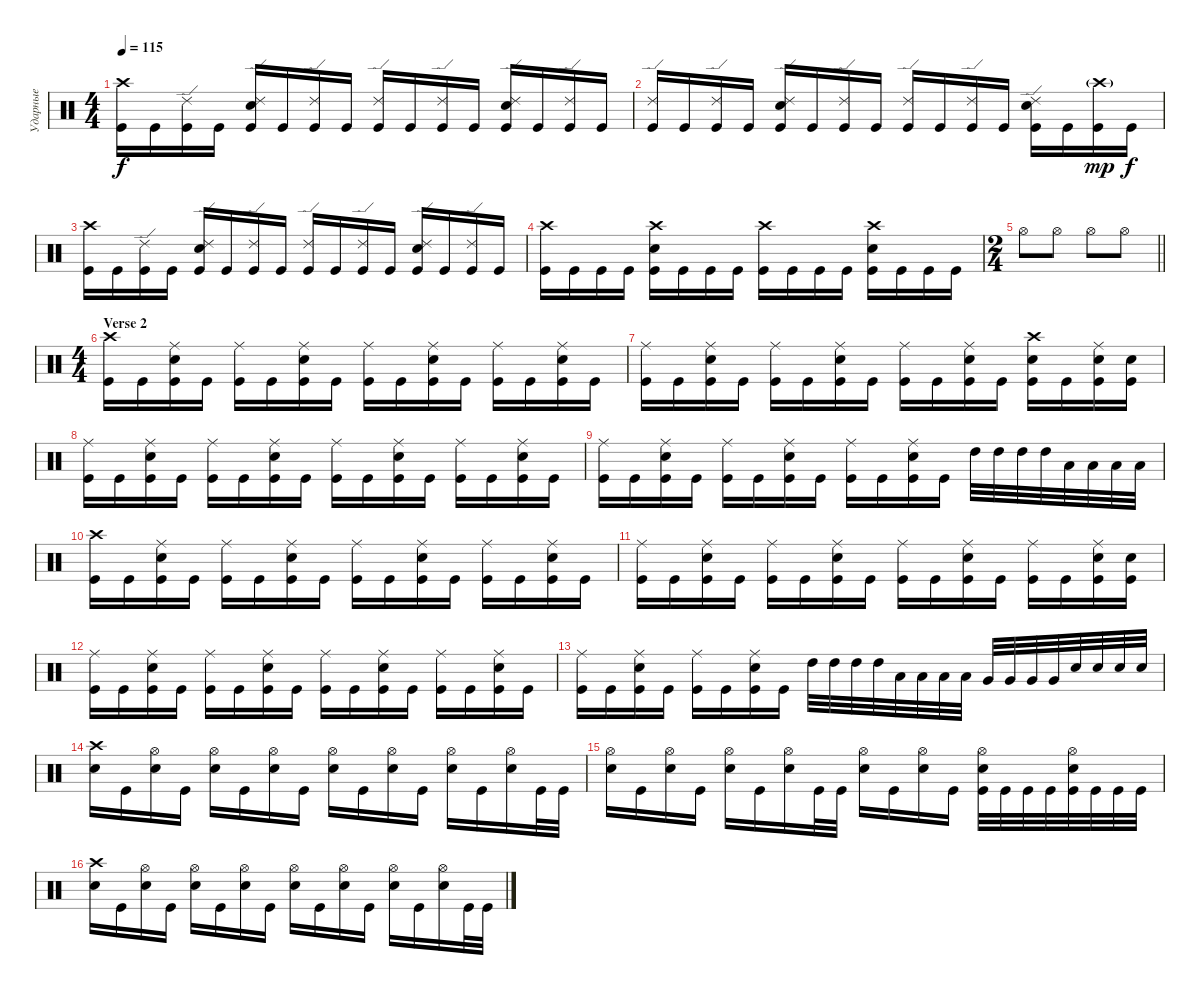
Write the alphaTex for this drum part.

\track ("Ударные" "Ударные") {instrument percussion}
\staff {score}
\articulation defaults
\ts (4 4)
\tempo 115
\clef neutral
\ks c
("Crash high (hit)" "Kick (hit)").16{dy f} "Kick (hit)".16 ("Ride (edge) 2" "Kick (hit)").16 "Kick (hit)".16 ("Ride (edge) 2" "Snare (hit) 2" "Kick (hit)").16 "Kick (hit)".16 ("Ride (edge) 2" "Kick (hit)").16 "Kick (hit)".16 ("Ride (edge) 2" "Kick (hit)").16 "Kick (hit)".16 ("Ride (edge) 2" "Kick (hit)").16 "Kick (hit)".16 ("Ride (edge) 2" "Snare (hit) 2" "Kick (hit)").16 "Kick (hit)".16 ("Ride (edge) 2" "Kick (hit)").16 "Kick (hit)".16 |
("Ride (edge) 2" "Kick (hit)").16 "Kick (hit)".16 ("Ride (edge) 2" "Kick (hit)").16 "Kick (hit)".16 ("Ride (edge) 2" "Snare (hit) 2" "Kick (hit)").16 "Kick (hit)".16 ("Ride (edge) 2" "Kick (hit)").16 "Kick (hit)".16 ("Ride (edge) 2" "Kick (hit)").16 "Kick (hit)".16 ("Ride (edge) 2" "Kick (hit)").16 "Kick (hit)".16 ("Ride (edge) 2" "Snare (hit) 2" "Kick (hit)").16 "Kick (hit)".16 ("Crash high (hit)"{g} "Kick (hit)").16{dy mp} "Kick (hit)".16{dy f} |
("Crash high (hit)" "Kick (hit)").16 "Kick (hit)".16 ("Ride (edge) 2" "Kick (hit)").16 "Kick (hit)".16 ("Ride (edge) 2" "Snare (hit) 2" "Kick (hit)").16 "Kick (hit)".16 ("Ride (edge) 2" "Kick (hit)").16 "Kick (hit)".16 ("Ride (edge) 2" "Kick (hit)").16 "Kick (hit)".16 ("Ride (edge) 2" "Kick (hit)").16 "Kick (hit)".16 ("Ride (edge) 2" "Snare (hit) 2" "Kick (hit)").16 "Kick (hit)".16 ("Ride (edge) 2" "Kick (hit)").16 "Kick (hit)".16 |
("Crash high (hit)" "Kick (hit)").16 "Kick (hit)".16 "Kick (hit)".16 "Kick (hit)".16 ("Crash high (hit)" "Snare (hit) 2" "Kick (hit)").16 "Kick (hit)".16 "Kick (hit)".16 "Kick (hit)".16 ("Crash high (hit)" "Kick (hit)").16 "Kick (hit)".16 "Kick (hit)".16 "Kick (hit)".16 ("Crash high (hit)" "Snare (hit) 2" "Kick (hit)").16 "Kick (hit)".16 "Kick (hit)".16 "Kick (hit)".16 |
\ts (2 4)
\barLineRight lightlight "Hi-Hat (open)".8 "Hi-Hat (open)".8 "Hi-Hat (open)".8 "Hi-Hat (open)".8
|
\ts (4 4)
\section ("" "Verse 2")
("Crash high (hit)" "Kick (hit)").16 "Kick (hit)".16 ("Ride (middle)" "Snare (hit) 2" "Kick (hit)").16 "Kick (hit)".16 ("Ride (middle)" "Kick (hit)").16 "Kick (hit)".16 ("Ride (middle)" "Snare (hit) 2" "Kick (hit)").16 "Kick (hit)".16 ("Ride (middle)" "Kick (hit)").16 "Kick (hit)".16 ("Ride (middle)" "Snare (hit) 2" "Kick (hit)").16 "Kick (hit)".16 ("Ride (middle)" "Kick (hit)").16 "Kick (hit)".16 ("Ride (middle)" "Snare (hit) 2" "Kick (hit)").16 "Kick (hit)".16 |
("Ride (middle)" "Kick (hit)").16 "Kick (hit)".16 ("Ride (middle)" "Snare (hit) 2" "Kick (hit)").16 "Kick (hit)".16 ("Ride (middle)" "Kick (hit)").16 "Kick (hit)".16 ("Ride (middle)" "Snare (hit) 2" "Kick (hit)").16 "Kick (hit)".16 ("Ride (middle)" "Kick (hit)").16 "Kick (hit)".16 ("Ride (middle)" "Snare (hit) 2" "Kick (hit)").16 "Kick (hit)".16 ("Crash high (hit)" "Snare (hit) 2" "Kick (hit)").16 "Kick (hit)".16 ("Ride (middle)" "Snare (hit) 2" "Kick (hit)").16 ("Snare (hit) 2" "Kick (hit)").16 |
("Ride (middle)" "Kick (hit)").16 "Kick (hit)".16 ("Ride (middle)" "Snare (hit) 2" "Kick (hit)").16 "Kick (hit)".16 ("Ride (middle)" "Kick (hit)").16 "Kick (hit)".16 ("Ride (middle)" "Snare (hit) 2" "Kick (hit)").16 "Kick (hit)".16 ("Ride (middle)" "Kick (hit)").16 "Kick (hit)".16 ("Ride (middle)" "Snare (hit) 2" "Kick (hit)").16 "Kick (hit)".16 ("Ride (middle)" "Kick (hit)").16 "Kick (hit)".16 ("Ride (middle)" "Snare (hit) 2" "Kick (hit)").16 "Kick (hit)".16 |
("Ride (middle)" "Kick (hit)").16 "Kick (hit)".16 ("Ride (middle)" "Snare (hit) 2" "Kick (hit)").16 "Kick (hit)".16 ("Ride (middle)" "Kick (hit)").16 "Kick (hit)".16 ("Ride (middle)" "Snare (hit) 2" "Kick (hit)").16 "Kick (hit)".16 ("Ride (middle)" "Kick (hit)").16 "Kick (hit)".16 ("Ride (middle)" "Snare (hit) 2" "Kick (hit)").16 "Kick (hit)".16 "High Tom (hit)".32 "High Tom (hit)".32 "High Tom (hit)".32 "High Tom (hit)".32 "Low Tom (hit)".32 "Low Tom (hit)".32 "Low Tom (hit)".32 "Low Tom (hit)".32 |
("Crash high (hit)" "Kick (hit)").16 "Kick (hit)".16 ("Ride (middle)" "Snare (hit) 2" "Kick (hit)").16 "Kick (hit)".16 ("Ride (middle)" "Kick (hit)").16 "Kick (hit)".16 ("Ride (middle)" "Snare (hit) 2" "Kick (hit)").16 "Kick (hit)".16 ("Ride (middle)" "Kick (hit)").16 "Kick (hit)".16 ("Ride (middle)" "Snare (hit) 2" "Kick (hit)").16 "Kick (hit)".16 ("Ride (middle)" "Kick (hit)").16 "Kick (hit)".16 ("Ride (middle)" "Snare (hit) 2" "Kick (hit)").16 "Kick (hit)".16 |
("Ride (middle)" "Kick (hit)").16 "Kick (hit)".16 ("Ride (middle)" "Snare (hit) 2" "Kick (hit)").16 "Kick (hit)".16 ("Ride (middle)" "Kick (hit)").16 "Kick (hit)".16 ("Ride (middle)" "Snare (hit) 2" "Kick (hit)").16 "Kick (hit)".16 ("Ride (middle)" "Kick (hit)").16 "Kick (hit)".16 ("Ride (middle)" "Snare (hit) 2" "Kick (hit)").16 "Kick (hit)".16 ("Ride (middle)" "Kick (hit)").16 "Kick (hit)".16 ("Ride (middle)" "Snare (hit) 2" "Kick (hit)").16 ("Snare (hit) 2" "Kick (hit)").16 |
("Ride (middle)" "Kick (hit)").16 "Kick (hit)".16 ("Ride (middle)" "Snare (hit) 2" "Kick (hit)").16 "Kick (hit)".16 ("Ride (middle)" "Kick (hit)").16 "Kick (hit)".16 ("Ride (middle)" "Snare (hit) 2" "Kick (hit)").16 "Kick (hit)".16 ("Ride (middle)" "Kick (hit)").16 "Kick (hit)".16 ("Ride (middle)" "Snare (hit) 2" "Kick (hit)").16 "Kick (hit)".16 ("Ride (middle)" "Kick (hit)").16 "Kick (hit)".16 ("Ride (middle)" "Snare (hit) 2" "Kick (hit)").16 "Kick (hit)".16 |
("Ride (middle)" "Kick (hit)").16 "Kick (hit)".16 ("Ride (middle)" "Snare (hit) 2" "Kick (hit)").16 "Kick (hit)".16 ("Ride (middle)" "Kick (hit)").16 "Kick (hit)".16 ("Ride (middle)" "Snare (hit) 2" "Kick (hit)").16 "Kick (hit)".16 "High Tom (hit)".32 "High Tom (hit)".32 "High Tom (hit)".32 "High Tom (hit)".32 "Low Tom (hit)".32 "Low Tom (hit)".32 "Low Tom (hit)".32 "Low Tom (hit)".32 "Very Low Tom (hit)".32 "Very Low Tom (hit)".32 "Very Low Tom (hit)".32 "Very Low Tom (hit)".32 "Snare (hit) 2".32 "Snare (hit) 2".32 "Snare (hit) 2".32 "Snare (hit) 2".32 |
("Crash high (hit)" "Snare (hit) 2").16 "Kick (hit)".16 ("Hi-Hat (open)" "Snare (hit) 2").16 "Kick (hit)".16 ("Hi-Hat (open)" "Snare (hit) 2").16 "Kick (hit)".16 ("Hi-Hat (open)" "Snare (hit) 2").16 "Kick (hit)".16 ("Hi-Hat (open)" "Snare (hit) 2").16 "Kick (hit)".16 ("Hi-Hat (open)" "Snare (hit) 2").16 "Kick (hit)".16 ("Hi-Hat (open)" "Snare (hit) 2").16 "Kick (hit)".16 ("Hi-Hat (open)" "Snare (hit) 2").16 "Kick (hit)".32 "Kick (hit)".32 |
("Hi-Hat (open)" "Snare (hit) 2").16 "Kick (hit)".16 ("Hi-Hat (open)" "Snare (hit) 2").16 "Kick (hit)".16 ("Hi-Hat (open)" "Snare (hit) 2").16 "Kick (hit)".16 ("Hi-Hat (open)" "Snare (hit) 2").16 "Kick (hit)".32 "Kick (hit)".32 ("Hi-Hat (open)" "Snare (hit) 2").16 "Kick (hit)".16 ("Hi-Hat (open)" "Snare (hit) 2").16 "Kick (hit)".16 ("Hi-Hat (open)" "Snare (hit) 2" "Kick (hit)").32 "Kick (hit)".32 "Kick (hit)".32 "Kick (hit)".32 ("Hi-Hat (open)" "Snare (hit) 2" "Kick (hit)").32 "Kick (hit)".32 "Kick (hit)".32 "Kick (hit)".32 |
("Crash high (hit)" "Snare (hit) 2").16 "Kick (hit)".16 ("Hi-Hat (open)" "Snare (hit) 2").16 "Kick (hit)".16 ("Hi-Hat (open)" "Snare (hit) 2").16 "Kick (hit)".16 ("Hi-Hat (open)" "Snare (hit) 2").16 "Kick (hit)".16 ("Hi-Hat (open)" "Snare (hit) 2").16 "Kick (hit)".16 ("Hi-Hat (open)" "Snare (hit) 2").16 "Kick (hit)".16 ("Hi-Hat (open)" "Snare (hit) 2").16 "Kick (hit)".16 ("Hi-Hat (open)" "Snare (hit) 2").16 "Kick (hit)".32 "Kick (hit)".32
